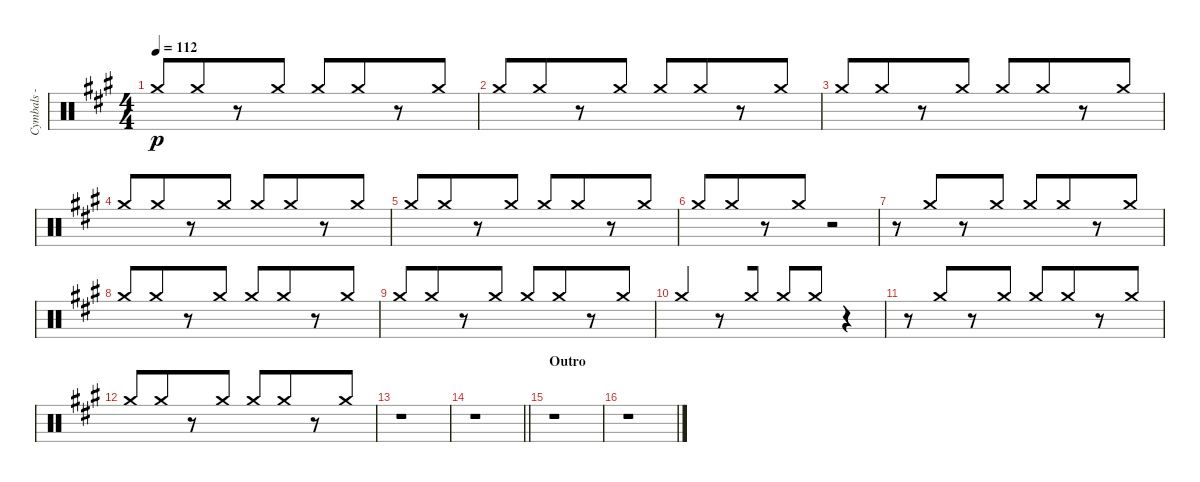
\track ("Cymbals - ride" "Cymbals - ") {instrument percussion}
\staff {score}
\articulation defaults
\ts (4 4)
\tempo 112
\clef neutral
\ks f#minor "Crash medium (hit)".8{dy p beam Up} "Crash medium (hit)".8{beam Up beam merge}
r.8{beam Up} "Crash medium (hit)".8{beam Up} "Crash medium (hit)".8{beam Up} "Crash medium (hit)".8{beam Up beam merge} r.8{beam Up} "Crash medium (hit)".8{beam Up} |
"Crash medium (hit)".8{beam Up} "Crash medium (hit)".8{beam Up beam merge} r.8{beam Up} "Crash medium (hit)".8{beam Up} "Crash medium (hit)".8{beam Up} "Crash medium (hit)".8{beam Up beam merge} r.8{beam Up} "Crash medium (hit)".8{beam Up} |
"Crash medium (hit)".8{beam Up} "Crash medium (hit)".8{beam Up beam merge} r.8{beam Up} "Crash medium (hit)".8{beam Up} "Crash medium (hit)".8{beam Up} "Crash medium (hit)".8{beam Up beam merge} r.8{beam Up} "Crash medium (hit)".8{beam Up} |
"Crash medium (hit)".8{beam Up} "Crash medium (hit)".8{beam Up beam merge} r.8{beam Up} "Crash medium (hit)".8{beam Up} "Crash medium (hit)".8{beam Up} "Crash medium (hit)".8{beam Up beam merge} r.8{beam Up} "Crash medium (hit)".8{beam Up} |
"Crash medium (hit)".8{beam Up} "Crash medium (hit)".8{beam Up beam merge} r.8{beam Up} "Crash medium (hit)".8{beam Up} "Crash medium (hit)".8{beam Up} "Crash medium (hit)".8{beam Up beam merge} r.8{beam Up} "Crash medium (hit)".8{beam Up} |
"Crash medium (hit)".8{beam Up} "Crash medium (hit)".8{beam Up beam merge} r.8{beam Up} "Crash medium (hit)".8{beam Up} r.2{beam Up} |
r.8{beam Up} "Crash medium (hit)".8{beam Up beam merge} r.8{beam Up} "Crash medium (hit)".8{beam Up} "Crash medium (hit)".8{beam Up} "Crash medium (hit)".8{beam Up beam merge} r.8{beam Up} "Crash medium (hit)".8{beam Up} |
"Crash medium (hit)".8{beam Up} "Crash medium (hit)".8{beam Up beam merge} r.8{beam Up} "Crash medium (hit)".8{beam Up} "Crash medium (hit)".8{beam Up} "Crash medium (hit)".8{beam Up beam merge} r.8{beam Up} "Crash medium (hit)".8{beam Up} |
"Crash medium (hit)".8{beam Up} "Crash medium (hit)".8{beam Up beam merge} r.8{beam Up} "Crash medium (hit)".8{beam Up} "Crash medium (hit)".8{beam Up} "Crash medium (hit)".8{beam Up beam merge} r.8{beam Up} "Crash medium (hit)".8{beam Up} |
"Crash medium (hit)".4{beam Up beam merge} r.8 "Crash medium (hit)".8{beam Up} "Crash medium (hit)".8{beam Up} "Crash medium (hit)".8{beam Up beam merge} r.4 |
r.8 "Crash medium (hit)".8{beam Up beam merge} r.8{beam Up} "Crash medium (hit)".8{beam Up} "Crash medium (hit)".8{beam Up} "Crash medium (hit)".8{beam Up beam merge} r.8{beam Up} "Crash medium (hit)".8{beam Up} |
"Crash medium (hit)".8{beam Up} "Crash medium (hit)".8{beam Up beam merge} r.8{beam Up} "Crash medium (hit)".8{beam Up} "Crash medium (hit)".8{beam Up} "Crash medium (hit)".8{beam Up beam merge} r.8{beam Up} "Crash medium (hit)".8{beam Up} |
r.1 |
\barLineRight lightlight
r.1 |
\section ("" "Outro")
r.1 |
r.1
